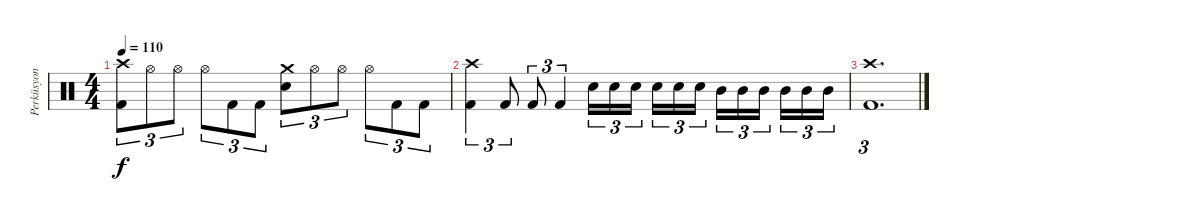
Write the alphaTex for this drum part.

\track ("Perküsyon" "Perküsyon") {instrument percussion}
\staff {score}
\articulation defaults
\ts (4 4)
\tempo 110
\clef neutral
\ks c
("Kick (hit) 2" "Crash high (hit)").8{tu (3 2) dy f} "Hi-Hat (open)".8{tu (3 2)} "Hi-Hat (open)".8{tu (3 2)} "Hi-Hat (open)".8{tu (3 2)} "Kick (hit) 2".8{tu (3 2)} "Kick (hit) 2".8{tu (3 2)} ("Electric Snare (hit)" "Crash medium (hit)").8{tu (3 2)} "Hi-Hat (open)".8{tu (3 2)} "Hi-Hat (open)".8{tu (3 2)} "Hi-Hat (open)".8{tu (3 2)} "Kick (hit) 2".8{tu (3 2)} "Kick (hit) 2".8{tu (3 2)} |
("Crash high (hit)" "Kick (hit) 2").4{tu (3 2)} "Kick (hit) 2".8{tu (3 2)} "Kick (hit) 2".8{tu (3 2)} "Kick (hit) 2".4{tu (3 2)} "Electric Snare (hit)".16{tu (3 2)} "Electric Snare (hit)".16{tu (3 2)} "Electric Snare (hit)".16{tu (3 2) beam splitsecondary} "Electric Snare (hit)".16{tu (3 2)} "Electric Snare (hit)".16{tu (3 2)} "Electric Snare (hit)".16{tu (3 2)} "Mid Tom (hit)".16{tu (3 2)} "Mid Tom (hit)".16{tu (3 2)} "Mid Tom (hit)".16{tu (3 2) beam splitsecondary} "Mid Tom (hit)".16{tu (3 2)} "Mid Tom (hit)".16{tu (3 2)} "Mid Tom (hit)".16{tu (3 2)} |
("Kick (hit) 2" "Crash high (hit)").1{d tu (3 2)}
